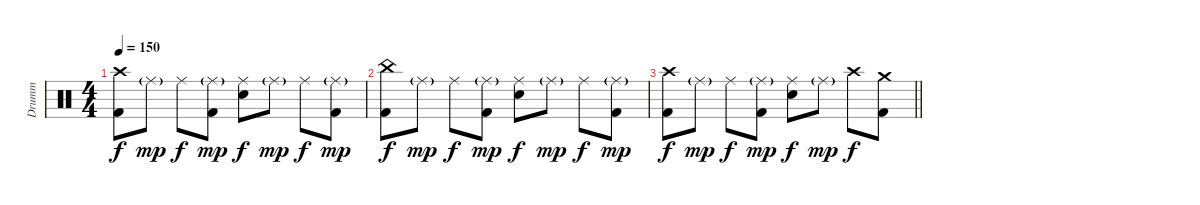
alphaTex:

\track ("Drumm" "Drumm") {instrument percussion}
\staff {score}
\articulation defaults
\ts (4 4)
\tempo 150
\clef neutral
\ks c
("Crash high (hit)" "Kick (hit) 2").8{dy f} "Ride (middle)"{g}.8{dy mp} "Ride (middle)".8{dy f} ("Ride (middle)"{g} "Kick (hit) 2").8{dy mp} ("Ride (middle)" "Snare (hit) 2").8{dy f} "Ride (middle)"{g}.8{dy mp} "Ride (middle)".8{dy f} ("Ride (middle)"{g} "Kick (hit) 2").8{dy mp} |
("China (hit)" "Kick (hit) 2").8{dy f} "Ride (middle)"{g}.8{dy mp} "Ride (middle)".8{dy f} ("Ride (middle)"{g} "Kick (hit) 2").8{dy mp} ("Ride (middle)" "Snare (hit) 2").8{dy f} "Ride (middle)"{g}.8{dy mp} "Ride (middle)".8{dy f} ("Ride (middle)"{g} "Kick (hit) 2").8{dy mp} |
\barLineRight lightlight
("Crash high (hit)" "Kick (hit) 2").8{dy f} "Ride (middle)"{g}.8{dy mp} "Ride (middle)".8{dy f} ("Ride (middle)"{g} "Kick (hit) 2").8{dy mp} ("Ride (middle)" "Snare (hit) 2").8{dy f} "Ride (middle)"{g}.8{dy mp} "Crash high (hit)".8{dy f} ("Crash medium (hit)" "Kick (hit) 2").8
